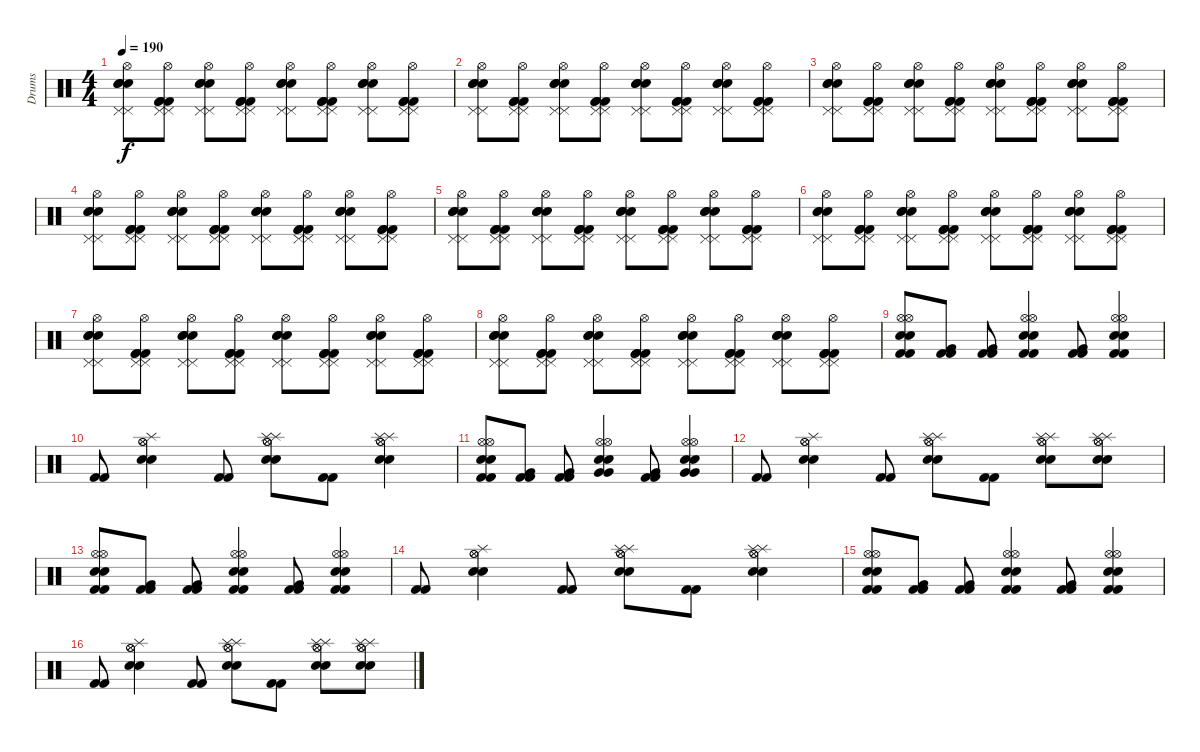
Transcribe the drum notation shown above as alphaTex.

\track ("Drums" "Drums") {instrument percussion}
\staff {score}
\articulation defaults
\ts (4 4)
\tempo 190
\clef neutral
\ks c
("Snare (hit) 2" "Snare (hit) 2" "Snare (hit) 2" "Pedal Hi-Hat (hit)" "Hi-Hat (open)" "Pedal Hi-Hat (hit)").8{dy f} ("Kick (hit) 2" "Kick (hit) 2" "Kick (hit) 2" "Pedal Hi-Hat (hit)" "Hi-Hat (open)" "Pedal Hi-Hat (hit)").8 ("Snare (hit) 2" "Snare (hit) 2" "Snare (hit) 2" "Pedal Hi-Hat (hit)" "Hi-Hat (open)" "Pedal Hi-Hat (hit)").8 ("Kick (hit) 2" "Kick (hit) 2" "Kick (hit) 2" "Pedal Hi-Hat (hit)" "Hi-Hat (open)" "Pedal Hi-Hat (hit)").8 ("Snare (hit) 2" "Snare (hit) 2" "Snare (hit) 2" "Pedal Hi-Hat (hit)" "Hi-Hat (open)" "Pedal Hi-Hat (hit)").8 ("Kick (hit) 2" "Kick (hit) 2" "Kick (hit) 2" "Pedal Hi-Hat (hit)" "Hi-Hat (open)" "Pedal Hi-Hat (hit)").8 ("Snare (hit) 2" "Snare (hit) 2" "Snare (hit) 2" "Pedal Hi-Hat (hit)" "Hi-Hat (open)" "Pedal Hi-Hat (hit)").8 ("Kick (hit) 2" "Kick (hit) 2" "Kick (hit) 2" "Pedal Hi-Hat (hit)" "Hi-Hat (open)" "Pedal Hi-Hat (hit)").8 |
("Snare (hit) 2" "Snare (hit) 2" "Snare (hit) 2" "Pedal Hi-Hat (hit)" "Hi-Hat (open)" "Pedal Hi-Hat (hit)").8 ("Kick (hit) 2" "Kick (hit) 2" "Kick (hit) 2" "Pedal Hi-Hat (hit)" "Hi-Hat (open)" "Pedal Hi-Hat (hit)").8 ("Snare (hit) 2" "Snare (hit) 2" "Snare (hit) 2" "Pedal Hi-Hat (hit)" "Hi-Hat (open)" "Pedal Hi-Hat (hit)").8 ("Kick (hit) 2" "Kick (hit) 2" "Kick (hit) 2" "Pedal Hi-Hat (hit)" "Hi-Hat (open)" "Pedal Hi-Hat (hit)").8 ("Snare (hit) 2" "Snare (hit) 2" "Snare (hit) 2" "Pedal Hi-Hat (hit)" "Hi-Hat (open)" "Pedal Hi-Hat (hit)").8 ("Kick (hit) 2" "Kick (hit) 2" "Kick (hit) 2" "Pedal Hi-Hat (hit)" "Hi-Hat (open)" "Pedal Hi-Hat (hit)").8 ("Snare (hit) 2" "Snare (hit) 2" "Snare (hit) 2" "Pedal Hi-Hat (hit)" "Hi-Hat (open)" "Pedal Hi-Hat (hit)").8 ("Kick (hit) 2" "Kick (hit) 2" "Kick (hit) 2" "Pedal Hi-Hat (hit)" "Hi-Hat (open)" "Pedal Hi-Hat (hit)").8 |
("Snare (hit) 2" "Snare (hit) 2" "Snare (hit) 2" "Pedal Hi-Hat (hit)" "Hi-Hat (open)" "Pedal Hi-Hat (hit)").8 ("Kick (hit) 2" "Kick (hit) 2" "Kick (hit) 2" "Pedal Hi-Hat (hit)" "Hi-Hat (open)" "Pedal Hi-Hat (hit)").8 ("Snare (hit) 2" "Snare (hit) 2" "Snare (hit) 2" "Pedal Hi-Hat (hit)" "Hi-Hat (open)" "Pedal Hi-Hat (hit)").8 ("Kick (hit) 2" "Kick (hit) 2" "Kick (hit) 2" "Pedal Hi-Hat (hit)" "Hi-Hat (open)" "Pedal Hi-Hat (hit)").8 ("Snare (hit) 2" "Snare (hit) 2" "Snare (hit) 2" "Pedal Hi-Hat (hit)" "Hi-Hat (open)" "Pedal Hi-Hat (hit)").8 ("Kick (hit) 2" "Kick (hit) 2" "Kick (hit) 2" "Pedal Hi-Hat (hit)" "Hi-Hat (open)" "Pedal Hi-Hat (hit)").8 ("Snare (hit) 2" "Snare (hit) 2" "Snare (hit) 2" "Pedal Hi-Hat (hit)" "Hi-Hat (open)" "Pedal Hi-Hat (hit)").8 ("Kick (hit) 2" "Kick (hit) 2" "Kick (hit) 2" "Pedal Hi-Hat (hit)" "Hi-Hat (open)" "Pedal Hi-Hat (hit)").8 |
("Snare (hit) 2" "Snare (hit) 2" "Snare (hit) 2" "Pedal Hi-Hat (hit)" "Hi-Hat (open)" "Pedal Hi-Hat (hit)").8 ("Kick (hit) 2" "Kick (hit) 2" "Kick (hit) 2" "Pedal Hi-Hat (hit)" "Hi-Hat (open)" "Pedal Hi-Hat (hit)").8 ("Snare (hit) 2" "Snare (hit) 2" "Snare (hit) 2" "Pedal Hi-Hat (hit)" "Hi-Hat (open)" "Pedal Hi-Hat (hit)").8 ("Kick (hit) 2" "Kick (hit) 2" "Kick (hit) 2" "Pedal Hi-Hat (hit)" "Hi-Hat (open)" "Pedal Hi-Hat (hit)").8 ("Snare (hit) 2" "Snare (hit) 2" "Snare (hit) 2" "Pedal Hi-Hat (hit)" "Hi-Hat (open)" "Pedal Hi-Hat (hit)").8 ("Kick (hit) 2" "Kick (hit) 2" "Kick (hit) 2" "Pedal Hi-Hat (hit)" "Hi-Hat (open)" "Pedal Hi-Hat (hit)").8 ("Snare (hit) 2" "Snare (hit) 2" "Snare (hit) 2" "Pedal Hi-Hat (hit)" "Hi-Hat (open)" "Pedal Hi-Hat (hit)").8 ("Kick (hit) 2" "Kick (hit) 2" "Kick (hit) 2" "Pedal Hi-Hat (hit)" "Hi-Hat (open)" "Pedal Hi-Hat (hit)").8 |
("Snare (hit) 2" "Snare (hit) 2" "Snare (hit) 2" "Pedal Hi-Hat (hit)" "Hi-Hat (open)" "Pedal Hi-Hat (hit)").8 ("Kick (hit) 2" "Kick (hit) 2" "Kick (hit) 2" "Pedal Hi-Hat (hit)" "Hi-Hat (open)" "Pedal Hi-Hat (hit)").8 ("Snare (hit) 2" "Snare (hit) 2" "Snare (hit) 2" "Pedal Hi-Hat (hit)" "Hi-Hat (open)" "Pedal Hi-Hat (hit)").8 ("Kick (hit) 2" "Kick (hit) 2" "Kick (hit) 2" "Pedal Hi-Hat (hit)" "Hi-Hat (open)" "Pedal Hi-Hat (hit)").8 ("Snare (hit) 2" "Snare (hit) 2" "Snare (hit) 2" "Pedal Hi-Hat (hit)" "Hi-Hat (open)" "Pedal Hi-Hat (hit)").8 ("Kick (hit) 2" "Kick (hit) 2" "Kick (hit) 2" "Pedal Hi-Hat (hit)" "Hi-Hat (open)" "Pedal Hi-Hat (hit)").8 ("Snare (hit) 2" "Snare (hit) 2" "Snare (hit) 2" "Pedal Hi-Hat (hit)" "Hi-Hat (open)" "Pedal Hi-Hat (hit)").8 ("Kick (hit) 2" "Kick (hit) 2" "Kick (hit) 2" "Pedal Hi-Hat (hit)" "Hi-Hat (open)" "Pedal Hi-Hat (hit)").8 |
("Snare (hit) 2" "Snare (hit) 2" "Snare (hit) 2" "Pedal Hi-Hat (hit)" "Hi-Hat (open)" "Pedal Hi-Hat (hit)").8 ("Kick (hit) 2" "Kick (hit) 2" "Kick (hit) 2" "Pedal Hi-Hat (hit)" "Hi-Hat (open)" "Pedal Hi-Hat (hit)").8 ("Snare (hit) 2" "Snare (hit) 2" "Snare (hit) 2" "Pedal Hi-Hat (hit)" "Hi-Hat (open)" "Pedal Hi-Hat (hit)").8 ("Kick (hit) 2" "Kick (hit) 2" "Kick (hit) 2" "Pedal Hi-Hat (hit)" "Hi-Hat (open)" "Pedal Hi-Hat (hit)").8 ("Snare (hit) 2" "Snare (hit) 2" "Snare (hit) 2" "Pedal Hi-Hat (hit)" "Hi-Hat (open)" "Pedal Hi-Hat (hit)").8 ("Kick (hit) 2" "Kick (hit) 2" "Kick (hit) 2" "Pedal Hi-Hat (hit)" "Hi-Hat (open)" "Pedal Hi-Hat (hit)").8 ("Snare (hit) 2" "Snare (hit) 2" "Snare (hit) 2" "Pedal Hi-Hat (hit)" "Hi-Hat (open)" "Pedal Hi-Hat (hit)").8 ("Kick (hit) 2" "Kick (hit) 2" "Kick (hit) 2" "Pedal Hi-Hat (hit)" "Hi-Hat (open)" "Pedal Hi-Hat (hit)").8 |
("Snare (hit) 2" "Snare (hit) 2" "Snare (hit) 2" "Pedal Hi-Hat (hit)" "Hi-Hat (open)" "Pedal Hi-Hat (hit)").8 ("Kick (hit) 2" "Kick (hit) 2" "Kick (hit) 2" "Pedal Hi-Hat (hit)" "Hi-Hat (open)" "Pedal Hi-Hat (hit)").8 ("Snare (hit) 2" "Snare (hit) 2" "Snare (hit) 2" "Pedal Hi-Hat (hit)" "Hi-Hat (open)" "Pedal Hi-Hat (hit)").8 ("Kick (hit) 2" "Kick (hit) 2" "Kick (hit) 2" "Pedal Hi-Hat (hit)" "Hi-Hat (open)" "Pedal Hi-Hat (hit)").8 ("Snare (hit) 2" "Snare (hit) 2" "Snare (hit) 2" "Pedal Hi-Hat (hit)" "Hi-Hat (open)" "Pedal Hi-Hat (hit)").8 ("Kick (hit) 2" "Kick (hit) 2" "Kick (hit) 2" "Pedal Hi-Hat (hit)" "Hi-Hat (open)" "Pedal Hi-Hat (hit)").8 ("Snare (hit) 2" "Snare (hit) 2" "Snare (hit) 2" "Pedal Hi-Hat (hit)" "Hi-Hat (open)" "Pedal Hi-Hat (hit)").8 ("Kick (hit) 2" "Kick (hit) 2" "Kick (hit) 2" "Pedal Hi-Hat (hit)" "Hi-Hat (open)" "Pedal Hi-Hat (hit)").8 |
("Snare (hit) 2" "Snare (hit) 2" "Snare (hit) 2" "Pedal Hi-Hat (hit)" "Hi-Hat (open)" "Pedal Hi-Hat (hit)").8 ("Kick (hit) 2" "Kick (hit) 2" "Kick (hit) 2" "Pedal Hi-Hat (hit)" "Hi-Hat (open)" "Pedal Hi-Hat (hit)").8 ("Snare (hit) 2" "Snare (hit) 2" "Snare (hit) 2" "Pedal Hi-Hat (hit)" "Hi-Hat (open)" "Pedal Hi-Hat (hit)").8 ("Kick (hit) 2" "Kick (hit) 2" "Kick (hit) 2" "Pedal Hi-Hat (hit)" "Hi-Hat (open)" "Pedal Hi-Hat (hit)").8 ("Snare (hit) 2" "Snare (hit) 2" "Snare (hit) 2" "Pedal Hi-Hat (hit)" "Hi-Hat (open)" "Pedal Hi-Hat (hit)").8 ("Kick (hit) 2" "Kick (hit) 2" "Kick (hit) 2" "Pedal Hi-Hat (hit)" "Hi-Hat (open)" "Pedal Hi-Hat (hit)").8 ("Snare (hit) 2" "Snare (hit) 2" "Snare (hit) 2" "Pedal Hi-Hat (hit)" "Hi-Hat (open)" "Pedal Hi-Hat (hit)").8 ("Kick (hit) 2" "Kick (hit) 2" "Kick (hit) 2" "Pedal Hi-Hat (hit)" "Hi-Hat (open)" "Pedal Hi-Hat (hit)").8 |
("Kick (hit) 2" "Kick (hit) 2" "Snare (hit) 2" "Snare (hit) 2" "Hi-Hat (open)" "Hi-Hat (open)").8 ("Kick (hit) 2" "Kick (hit) 2" "Very Low Tom (hit)").8 ("Kick (hit) 2" "Kick (hit) 2" "Very Low Tom (hit)").8 ("Kick (hit) 2" "Kick (hit) 2" "Snare (hit) 2" "Snare (hit) 2" "Hi-Hat (open)" "Hi-Hat (open)").4 ("Kick (hit) 2" "Kick (hit) 2" "Very Low Tom (hit)").8 ("Kick (hit) 2" "Kick (hit) 2" "Snare (hit) 2" "Snare (hit) 2" "Hi-Hat (open)" "Hi-Hat (open)").4 |
("Kick (hit) 2" "Kick (hit) 2").8 ("Snare (hit) 2" "Snare (hit) 2" "Hi-Hat (open)" "Hi-Hat (open)" "Splash (hit)").4 ("Kick (hit) 2" "Kick (hit) 2").8 ("Snare (hit) 2" "Snare (hit) 2" "Hi-Hat (open)" "Hi-Hat (open)" "Splash (hit)" "Splash (hit)").8 ("Kick (hit) 2" "Kick (hit) 2").8 ("Snare (hit) 2" "Snare (hit) 2" "Hi-Hat (open)" "Hi-Hat (open)" "Splash (hit)" "Splash (hit)").4 |
("Kick (hit) 2" "Kick (hit) 2" "Snare (hit) 2" "Snare (hit) 2" "Hi-Hat (open)" "Hi-Hat (open)").8 ("Kick (hit) 2" "Kick (hit) 2" "Very Low Tom (hit)").8 ("Kick (hit) 2" "Kick (hit) 2" "Very Low Tom (hit)").8 ("Very Low Tom (hit)" "Very Low Tom (hit)" "Snare (hit) 2" "Snare (hit) 2" "Hi-Hat (open)" "Hi-Hat (open)").4 ("Kick (hit) 2" "Kick (hit) 2" "Very Low Tom (hit)").8 ("Very Low Tom (hit)" "Very Low Tom (hit)" "Snare (hit) 2" "Snare (hit) 2" "Hi-Hat (open)" "Hi-Hat (open)").4 |
("Kick (hit) 2" "Kick (hit) 2").8 ("Snare (hit) 2" "Snare (hit) 2" "Hi-Hat (open)" "Hi-Hat (open)" "Splash (hit)").4 ("Kick (hit) 2" "Kick (hit) 2").8 ("Snare (hit) 2" "Snare (hit) 2" "Hi-Hat (open)" "Hi-Hat (open)" "Splash (hit)" "Splash (hit)").8 ("Kick (hit) 2" "Kick (hit) 2").8 ("Snare (hit) 2" "Snare (hit) 2" "Hi-Hat (open)" "Hi-Hat (open)" "Splash (hit)" "Splash (hit)").8 ("Snare (hit) 2" "Snare (hit) 2" "Hi-Hat (open)" "Hi-Hat (open)" "Splash (hit)" "Splash (hit)").8 |
("Kick (hit) 2" "Kick (hit) 2" "Snare (hit) 2" "Snare (hit) 2" "Hi-Hat (open)" "Hi-Hat (open)").8 ("Kick (hit) 2" "Kick (hit) 2" "Very Low Tom (hit)").8 ("Kick (hit) 2" "Kick (hit) 2" "Very Low Tom (hit)").8 ("Kick (hit) 2" "Kick (hit) 2" "Snare (hit) 2" "Snare (hit) 2" "Hi-Hat (open)" "Hi-Hat (open)").4 ("Kick (hit) 2" "Kick (hit) 2" "Very Low Tom (hit)").8 ("Kick (hit) 2" "Kick (hit) 2" "Snare (hit) 2" "Snare (hit) 2" "Hi-Hat (open)" "Hi-Hat (open)").4 |
("Kick (hit) 2" "Kick (hit) 2").8 ("Snare (hit) 2" "Snare (hit) 2" "Hi-Hat (open)" "Hi-Hat (open)" "Splash (hit)").4 ("Kick (hit) 2" "Kick (hit) 2").8 ("Snare (hit) 2" "Snare (hit) 2" "Hi-Hat (open)" "Hi-Hat (open)" "Splash (hit)" "Splash (hit)").8 ("Kick (hit) 2" "Kick (hit) 2").8 ("Snare (hit) 2" "Snare (hit) 2" "Hi-Hat (open)" "Hi-Hat (open)" "Splash (hit)" "Splash (hit)").4 |
("Kick (hit) 2" "Kick (hit) 2" "Snare (hit) 2" "Snare (hit) 2" "Hi-Hat (open)" "Hi-Hat (open)").8 ("Kick (hit) 2" "Kick (hit) 2" "Very Low Tom (hit)").8 ("Kick (hit) 2" "Kick (hit) 2" "Very Low Tom (hit)").8 ("Kick (hit) 2" "Kick (hit) 2" "Snare (hit) 2" "Snare (hit) 2" "Hi-Hat (open)" "Hi-Hat (open)").4 ("Kick (hit) 2" "Kick (hit) 2" "Very Low Tom (hit)").8 ("Kick (hit) 2" "Kick (hit) 2" "Snare (hit) 2" "Snare (hit) 2" "Hi-Hat (open)" "Hi-Hat (open)").4 |
("Kick (hit) 2" "Kick (hit) 2").8 ("Snare (hit) 2" "Snare (hit) 2" "Hi-Hat (open)" "Hi-Hat (open)" "Splash (hit)").4 ("Kick (hit) 2" "Kick (hit) 2").8 ("Snare (hit) 2" "Snare (hit) 2" "Hi-Hat (open)" "Hi-Hat (open)" "Splash (hit)" "Splash (hit)").8 ("Kick (hit) 2" "Kick (hit) 2").8 ("Snare (hit) 2" "Snare (hit) 2" "Hi-Hat (open)" "Hi-Hat (open)" "Splash (hit)" "Splash (hit)").8 ("Snare (hit) 2" "Snare (hit) 2" "Hi-Hat (open)" "Hi-Hat (open)" "Splash (hit)" "Splash (hit)").8
